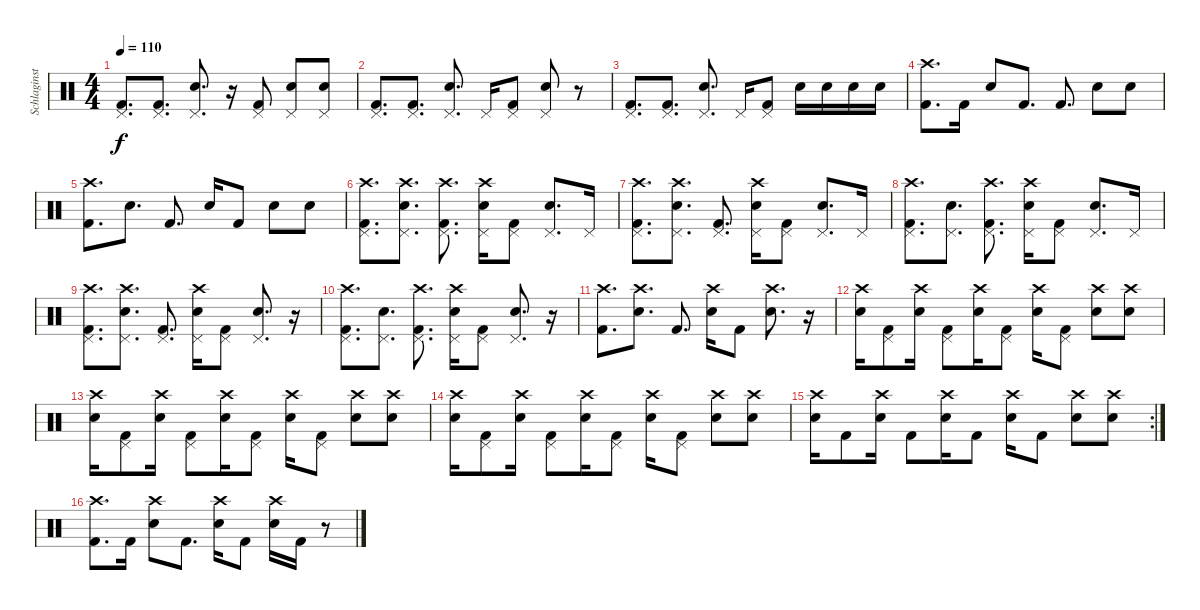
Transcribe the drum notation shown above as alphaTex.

\track ("Schlaginstrumente - Auswahl" "Schlaginst") {instrument percussion}
\staff {score}
\articulation defaults
\ts (4 4)
\tempo 110
\clef neutral
\ks c
("Pedal Hi-Hat (hit)" "Kick (hit) 2").8{d dy f} ("Pedal Hi-Hat (hit)" "Kick (hit) 2").8{d} ("Pedal Hi-Hat (hit)" "Snare (hit) 2").8{d} r.16 ("Pedal Hi-Hat (hit)" "Kick (hit) 2").8 ("Pedal Hi-Hat (hit)" "Snare (hit) 2").8 ("Pedal Hi-Hat (hit)" "Snare (hit) 2").8 |
("Pedal Hi-Hat (hit)" "Kick (hit) 2").8{d} ("Pedal Hi-Hat (hit)" "Kick (hit) 2").8{d} ("Pedal Hi-Hat (hit)" "Snare (hit) 2").8{d} "Pedal Hi-Hat (hit)".16 ("Pedal Hi-Hat (hit)" "Kick (hit) 2").8 ("Pedal Hi-Hat (hit)" "Snare (hit) 2").8 r.8 |
("Pedal Hi-Hat (hit)" "Kick (hit) 2").8{d} ("Pedal Hi-Hat (hit)" "Kick (hit) 2").8{d} ("Pedal Hi-Hat (hit)" "Snare (hit) 2").8{d} "Pedal Hi-Hat (hit)".16 ("Pedal Hi-Hat (hit)" "Kick (hit) 2").8 "Snare (hit) 2".16 "Snare (hit) 2".16 "Snare (hit) 2".16 "Snare (hit) 2".16 |
("Crash high (hit)" "Kick (hit) 2").8{d} "Kick (hit) 2".16 "Snare (hit) 2".8 "Kick (hit) 2".8{d} "Kick (hit) 2".8{d} "Snare (hit) 2".8 "Snare (hit) 2".8 |
("Crash high (hit)" "Kick (hit) 2").8{d} "Snare (hit) 2".8{d} "Kick (hit) 2".8{d} "Snare (hit) 2".16 "Kick (hit) 2".8 "Snare (hit) 2".8 "Snare (hit) 2".8 |
("Pedal Hi-Hat (hit)" "Crash high (hit)" "Kick (hit) 2").8{d} ("Pedal Hi-Hat (hit)" "Crash high (hit)" "Snare (hit) 2").8{d} ("Pedal Hi-Hat (hit)" "Crash high (hit)" "Kick (hit) 2").8{d} ("Pedal Hi-Hat (hit)" "Crash high (hit)" "Snare (hit) 2").16 ("Pedal Hi-Hat (hit)" "Kick (hit) 2").8 ("Pedal Hi-Hat (hit)" "Snare (hit) 2").8{d} "Pedal Hi-Hat (hit)".16 |
("Pedal Hi-Hat (hit)" "Crash high (hit)" "Kick (hit) 2").8{d} ("Pedal Hi-Hat (hit)" "Crash high (hit)" "Snare (hit) 2").8{d} ("Pedal Hi-Hat (hit)" "Kick (hit) 2").8{d} ("Pedal Hi-Hat (hit)" "Crash high (hit)" "Snare (hit) 2").16 ("Pedal Hi-Hat (hit)" "Kick (hit) 2").8 ("Pedal Hi-Hat (hit)" "Snare (hit) 2").8{d} "Pedal Hi-Hat (hit)".16 |
("Pedal Hi-Hat (hit)" "Crash high (hit)" "Kick (hit) 2").8{d} ("Pedal Hi-Hat (hit)" "Snare (hit) 2").8{d} ("Pedal Hi-Hat (hit)" "Crash high (hit)" "Kick (hit) 2").8{d} ("Pedal Hi-Hat (hit)" "Crash high (hit)" "Snare (hit) 2").16 ("Pedal Hi-Hat (hit)" "Kick (hit) 2").8 ("Pedal Hi-Hat (hit)" "Snare (hit) 2").8{d} "Pedal Hi-Hat (hit)".16 |
("Pedal Hi-Hat (hit)" "Crash high (hit)" "Kick (hit) 2").8{d} ("Pedal Hi-Hat (hit)" "Crash high (hit)" "Snare (hit) 2").8{d} ("Pedal Hi-Hat (hit)" "Kick (hit) 2").8{d} ("Pedal Hi-Hat (hit)" "Crash high (hit)" "Snare (hit) 2").16 ("Pedal Hi-Hat (hit)" "Kick (hit) 2").8 ("Pedal Hi-Hat (hit)" "Snare (hit) 2").8{d} r.16 |
("Pedal Hi-Hat (hit)" "Crash high (hit)" "Kick (hit) 2").8{d} ("Pedal Hi-Hat (hit)" "Snare (hit) 2").8{d} ("Pedal Hi-Hat (hit)" "Crash high (hit)" "Kick (hit) 2").8{d} ("Pedal Hi-Hat (hit)" "Crash high (hit)" "Snare (hit) 2").16 ("Pedal Hi-Hat (hit)" "Kick (hit) 2").8 ("Pedal Hi-Hat (hit)" "Snare (hit) 2").8{d} r.16 |
("Crash high (hit)" "Kick (hit) 2").8{d} ("Crash high (hit)" "Snare (hit) 2").8{d} "Kick (hit) 2".8{d} ("Crash high (hit)" "Snare (hit) 2").16 "Kick (hit) 2".8 ("Crash high (hit)" "Snare (hit) 2").8{d} r.16 |
("Crash high (hit)" "Snare (hit) 2").16 ("Pedal Hi-Hat (hit)" "Kick (hit) 2").8 ("Crash high (hit)" "Snare (hit) 2").16 ("Pedal Hi-Hat (hit)" "Kick (hit) 2").8 ("Crash high (hit)" "Snare (hit) 2").16 ("Pedal Hi-Hat (hit)" "Kick (hit) 2").8 ("Crash high (hit)" "Snare (hit) 2").16 ("Pedal Hi-Hat (hit)" "Kick (hit) 2").8 ("Crash high (hit)" "Snare (hit) 2").8 ("Crash high (hit)" "Snare (hit) 2").8 |
("Crash high (hit)" "Snare (hit) 2").16 ("Pedal Hi-Hat (hit)" "Kick (hit) 2").8 ("Crash high (hit)" "Snare (hit) 2").16 ("Pedal Hi-Hat (hit)" "Kick (hit) 2").8 ("Crash high (hit)" "Snare (hit) 2").16 ("Pedal Hi-Hat (hit)" "Kick (hit) 2").8 ("Crash high (hit)" "Snare (hit) 2").16 ("Pedal Hi-Hat (hit)" "Kick (hit) 2").8 ("Crash high (hit)" "Snare (hit) 2").8 ("Crash high (hit)" "Snare (hit) 2").8 |
("Crash high (hit)" "Snare (hit) 2").16 ("Pedal Hi-Hat (hit)" "Kick (hit) 2").8 ("Crash high (hit)" "Snare (hit) 2").16 ("Pedal Hi-Hat (hit)" "Kick (hit) 2").8 ("Crash high (hit)" "Snare (hit) 2").16 ("Pedal Hi-Hat (hit)" "Kick (hit) 2").8 ("Crash high (hit)" "Snare (hit) 2").16 ("Pedal Hi-Hat (hit)" "Kick (hit) 2").8 ("Crash high (hit)" "Snare (hit) 2").8 ("Crash high (hit)" "Snare (hit) 2").8 |
\rc 2
("Crash high (hit)" "Snare (hit) 2").16 "Kick (hit) 2".8 ("Crash high (hit)" "Snare (hit) 2").16 "Kick (hit) 2".8 ("Crash high (hit)" "Snare (hit) 2").16 "Kick (hit) 2".8 ("Crash high (hit)" "Snare (hit) 2").16 "Kick (hit) 2".8 ("Crash high (hit)" "Snare (hit) 2").8 ("Crash high (hit)" "Snare (hit) 2").8 |
("Crash high (hit)" "Kick (hit) 2").8{d} "Kick (hit) 2".16 ("Crash high (hit)" "Snare (hit) 2").8 "Kick (hit) 2".8{d} ("Crash high (hit)" "Snare (hit) 2").16 "Kick (hit) 2".8 ("Crash high (hit)" "Snare (hit) 2").16 "Kick (hit) 2".16 r.8
